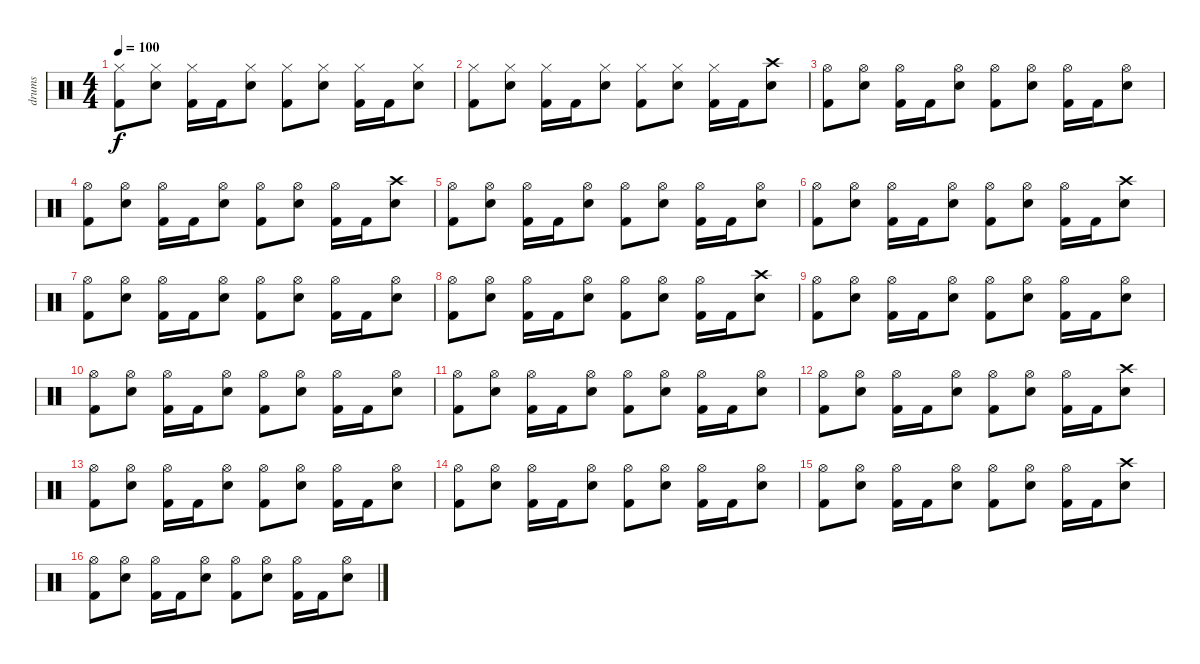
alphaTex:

\track ("drums" "drums") {instrument percussion}
\staff {score}
\articulation defaults
\ts (4 4)
\tempo 100
\clef neutral
\ks c
("Hi-Hat (closed)" "Kick (hit) 2").8{dy f} ("Hi-Hat (closed)" "Electric Snare (hit)").8 ("Hi-Hat (closed)" "Kick (hit) 2").16 "Kick (hit) 2".16 ("Hi-Hat (closed)" "Electric Snare (hit)").8 ("Hi-Hat (closed)" "Kick (hit) 2").8 ("Hi-Hat (closed)" "Electric Snare (hit)").8 ("Hi-Hat (closed)" "Kick (hit) 2").16 "Kick (hit) 2".16 ("Hi-Hat (closed)" "Electric Snare (hit)").8 |
("Hi-Hat (closed)" "Kick (hit) 2").8 ("Hi-Hat (closed)" "Electric Snare (hit)").8 ("Hi-Hat (closed)" "Kick (hit) 2").16 "Kick (hit) 2".16 ("Hi-Hat (closed)" "Electric Snare (hit)").8 ("Hi-Hat (closed)" "Kick (hit) 2").8 ("Hi-Hat (closed)" "Electric Snare (hit)").8 ("Hi-Hat (closed)" "Kick (hit) 2").16 "Kick (hit) 2".16 ("Crash high (hit)" "Electric Snare (hit)").8 |
("Hi-Hat (open)" "Kick (hit) 2").8 ("Hi-Hat (open)" "Electric Snare (hit)").8 ("Hi-Hat (open)" "Kick (hit) 2").16 "Kick (hit) 2".16 ("Hi-Hat (open)" "Electric Snare (hit)").8 ("Hi-Hat (open)" "Kick (hit) 2").8 ("Hi-Hat (open)" "Electric Snare (hit)").8 ("Hi-Hat (open)" "Kick (hit) 2").16 "Kick (hit) 2".16 ("Hi-Hat (open)" "Electric Snare (hit)").8 |
("Hi-Hat (open)" "Kick (hit) 2").8 ("Hi-Hat (open)" "Electric Snare (hit)").8 ("Hi-Hat (open)" "Kick (hit) 2").16 "Kick (hit) 2".16 ("Hi-Hat (open)" "Electric Snare (hit)").8 ("Hi-Hat (open)" "Kick (hit) 2").8 ("Hi-Hat (open)" "Electric Snare (hit)").8 ("Hi-Hat (open)" "Kick (hit) 2").16 "Kick (hit) 2".16 ("Crash high (hit)" "Electric Snare (hit)").8 |
("Hi-Hat (open)" "Kick (hit) 2").8 ("Hi-Hat (open)" "Electric Snare (hit)").8 ("Hi-Hat (open)" "Kick (hit) 2").16 "Kick (hit) 2".16 ("Hi-Hat (open)" "Electric Snare (hit)").8 ("Hi-Hat (open)" "Kick (hit) 2").8 ("Hi-Hat (open)" "Electric Snare (hit)").8 ("Hi-Hat (open)" "Kick (hit) 2").16 "Kick (hit) 2".16 ("Hi-Hat (open)" "Electric Snare (hit)").8 |
("Hi-Hat (open)" "Kick (hit) 2").8 ("Hi-Hat (open)" "Electric Snare (hit)").8 ("Hi-Hat (open)" "Kick (hit) 2").16 "Kick (hit) 2".16 ("Hi-Hat (open)" "Electric Snare (hit)").8 ("Hi-Hat (open)" "Kick (hit) 2").8 ("Hi-Hat (open)" "Electric Snare (hit)").8 ("Hi-Hat (open)" "Kick (hit) 2").16 "Kick (hit) 2".16 ("Crash high (hit)" "Electric Snare (hit)").8 |
("Hi-Hat (open)" "Kick (hit) 2").8 ("Hi-Hat (open)" "Electric Snare (hit)").8 ("Hi-Hat (open)" "Kick (hit) 2").16 "Kick (hit) 2".16 ("Hi-Hat (open)" "Electric Snare (hit)").8 ("Hi-Hat (open)" "Kick (hit) 2").8 ("Hi-Hat (open)" "Electric Snare (hit)").8 ("Hi-Hat (open)" "Kick (hit) 2").16 "Kick (hit) 2".16 ("Hi-Hat (open)" "Electric Snare (hit)").8 |
("Hi-Hat (open)" "Kick (hit) 2").8 ("Hi-Hat (open)" "Electric Snare (hit)").8 ("Hi-Hat (open)" "Kick (hit) 2").16 "Kick (hit) 2".16 ("Hi-Hat (open)" "Electric Snare (hit)").8 ("Hi-Hat (open)" "Kick (hit) 2").8 ("Hi-Hat (open)" "Electric Snare (hit)").8 ("Hi-Hat (open)" "Kick (hit) 2").16 "Kick (hit) 2".16 ("Crash high (hit)" "Electric Snare (hit)").8 |
("Hi-Hat (open)" "Kick (hit) 2").8 ("Hi-Hat (open)" "Electric Snare (hit)").8 ("Hi-Hat (open)" "Kick (hit) 2").16 "Kick (hit) 2".16 ("Hi-Hat (open)" "Electric Snare (hit)").8 ("Hi-Hat (open)" "Kick (hit) 2").8 ("Hi-Hat (open)" "Electric Snare (hit)").8 ("Hi-Hat (open)" "Kick (hit) 2").16 "Kick (hit) 2".16 ("Hi-Hat (open)" "Electric Snare (hit)").8 |
("Hi-Hat (open)" "Kick (hit) 2").8 ("Hi-Hat (open)" "Electric Snare (hit)").8 ("Hi-Hat (open)" "Kick (hit) 2").16 "Kick (hit) 2".16 ("Hi-Hat (open)" "Electric Snare (hit)").8 ("Hi-Hat (open)" "Kick (hit) 2").8 ("Hi-Hat (open)" "Electric Snare (hit)").8 ("Hi-Hat (open)" "Kick (hit) 2").16 "Kick (hit) 2".16 ("Hi-Hat (open)" "Electric Snare (hit)").8 |
("Hi-Hat (open)" "Kick (hit) 2").8 ("Hi-Hat (open)" "Electric Snare (hit)").8 ("Hi-Hat (open)" "Kick (hit) 2").16 "Kick (hit) 2".16 ("Hi-Hat (open)" "Electric Snare (hit)").8 ("Hi-Hat (open)" "Kick (hit) 2").8 ("Hi-Hat (open)" "Electric Snare (hit)").8 ("Hi-Hat (open)" "Kick (hit) 2").16 "Kick (hit) 2".16 ("Hi-Hat (open)" "Electric Snare (hit)").8 |
("Hi-Hat (open)" "Kick (hit) 2").8 ("Hi-Hat (open)" "Electric Snare (hit)").8 ("Hi-Hat (open)" "Kick (hit) 2").16 "Kick (hit) 2".16 ("Hi-Hat (open)" "Electric Snare (hit)").8 ("Hi-Hat (open)" "Kick (hit) 2").8 ("Hi-Hat (open)" "Electric Snare (hit)").8 ("Hi-Hat (open)" "Kick (hit) 2").16 "Kick (hit) 2".16 ("Crash high (hit)" "Electric Snare (hit)").8 |
("Hi-Hat (open)" "Kick (hit) 2").8 ("Hi-Hat (open)" "Electric Snare (hit)").8 ("Hi-Hat (open)" "Kick (hit) 2").16 "Kick (hit) 2".16 ("Hi-Hat (open)" "Electric Snare (hit)").8 ("Hi-Hat (open)" "Kick (hit) 2").8 ("Hi-Hat (open)" "Electric Snare (hit)").8 ("Hi-Hat (open)" "Kick (hit) 2").16 "Kick (hit) 2".16 ("Hi-Hat (open)" "Electric Snare (hit)").8 |
("Hi-Hat (open)" "Kick (hit) 2").8 ("Hi-Hat (open)" "Electric Snare (hit)").8 ("Hi-Hat (open)" "Kick (hit) 2").16 "Kick (hit) 2".16 ("Hi-Hat (open)" "Electric Snare (hit)").8 ("Hi-Hat (open)" "Kick (hit) 2").8 ("Hi-Hat (open)" "Electric Snare (hit)").8 ("Hi-Hat (open)" "Kick (hit) 2").16 "Kick (hit) 2".16 ("Hi-Hat (open)" "Electric Snare (hit)").8 |
("Hi-Hat (open)" "Kick (hit) 2").8 ("Hi-Hat (open)" "Electric Snare (hit)").8 ("Hi-Hat (open)" "Kick (hit) 2").16 "Kick (hit) 2".16 ("Hi-Hat (open)" "Electric Snare (hit)").8 ("Hi-Hat (open)" "Kick (hit) 2").8 ("Hi-Hat (open)" "Electric Snare (hit)").8 ("Hi-Hat (open)" "Kick (hit) 2").16 "Kick (hit) 2".16 ("Crash high (hit)" "Electric Snare (hit)").8 |
("Hi-Hat (open)" "Kick (hit) 2").8 ("Hi-Hat (open)" "Electric Snare (hit)").8 ("Hi-Hat (open)" "Kick (hit) 2").16 "Kick (hit) 2".16 ("Hi-Hat (open)" "Electric Snare (hit)").8 ("Hi-Hat (open)" "Kick (hit) 2").8 ("Hi-Hat (open)" "Electric Snare (hit)").8 ("Hi-Hat (open)" "Kick (hit) 2").16 "Kick (hit) 2".16 ("Hi-Hat (open)" "Electric Snare (hit)").8
